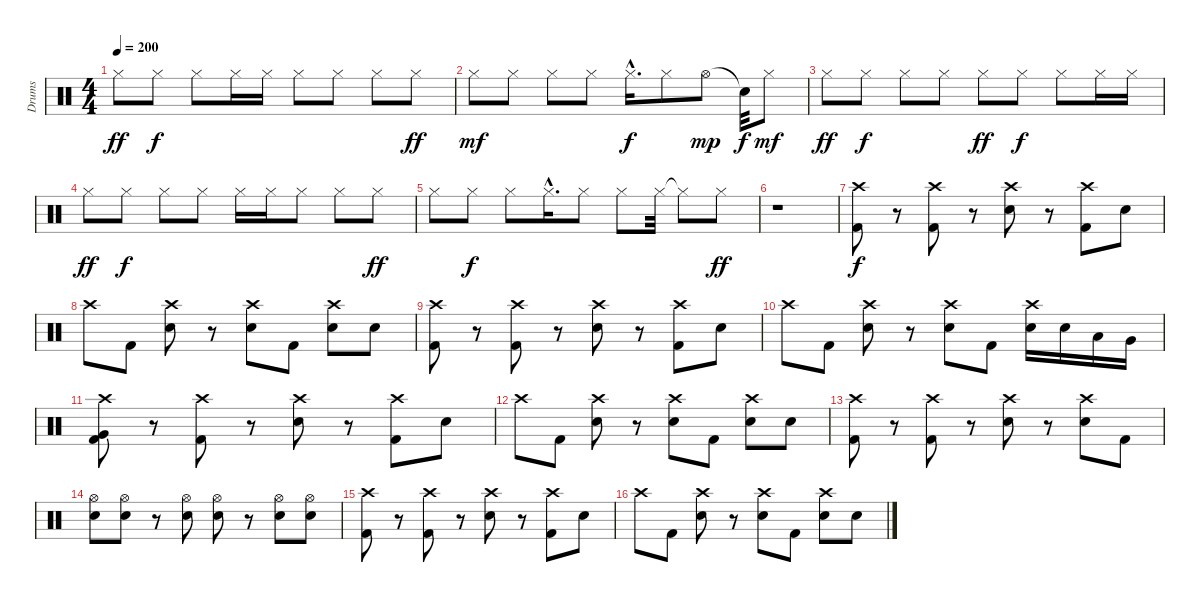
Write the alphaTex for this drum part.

\track ("Drums" "Drums") {instrument percussion}
\staff {score}
\articulation defaults
\ts (4 4)
\tempo 200
\clef neutral
\ks c "Hi-Hat (closed)".8{dy ff} "Hi-Hat (closed)".8{dy f} "Hi-Hat (closed)".8 "Hi-Hat (closed)".16 "Hi-Hat (closed)".16 "Hi-Hat (closed)".8 "Hi-Hat (closed)".8 "Hi-Hat (closed)".8 "Hi-Hat (closed)".8{dy ff}
|
"Hi-Hat (closed)".8{dy mf} "Hi-Hat (closed)".8 "Hi-Hat (closed)".8 "Hi-Hat (closed)".8 "Hi-Hat (closed)"{hac}.16{d dy f} "Hi-Hat (closed)".8 "Hi-Hat (open)".8{dy mp} "Snare (hit)"{t}.32{dy f} "Hi-Hat (closed)".8{dy mf} |
"Hi-Hat (closed)".8{dy ff} "Hi-Hat (closed)".8{dy f} "Hi-Hat (closed)".8 "Hi-Hat (closed)".8 "Hi-Hat (closed)".8{dy ff} "Hi-Hat (closed)".8{dy f} "Hi-Hat (closed)".8 "Hi-Hat (closed)".16 "Hi-Hat (closed)".16 |
"Hi-Hat (closed)".8{dy ff} "Hi-Hat (closed)".8{dy f} "Hi-Hat (closed)".8 "Hi-Hat (closed)".8 "Hi-Hat (closed)".16 "Hi-Hat (closed)".16 "Hi-Hat (closed)".8 "Hi-Hat (closed)".8 "Hi-Hat (closed)".8{dy ff} |
"Hi-Hat (closed)".8 "Hi-Hat (closed)".8{dy f} "Hi-Hat (closed)".8 "Hi-Hat (closed)"{hac}.16{d} "Hi-Hat (closed)".8 "Hi-Hat (closed)".8 "Hi-Hat (closed)".32 "Hi-Hat (closed)"{t}.8 "Hi-Hat (closed)".8{dy ff} |
r.1 |
("Crash high (hit)" "Kick (hit) 2").8{dy f} r.8 ("Crash high (hit)" "Kick (hit) 2").8 r.8 ("Crash high (hit)" "Electric Snare (hit)").8 r.8 ("Crash high (hit)" "Kick (hit) 2").8 "Electric Snare (hit)".8 |
"Crash high (hit)".8 "Kick (hit) 2".8 ("Crash high (hit)" "Electric Snare (hit)").8 r.8 ("Crash high (hit)" "Electric Snare (hit)").8 "Kick (hit) 2".8 ("Crash high (hit)" "Electric Snare (hit)").8 "Electric Snare (hit)".8 |
("Crash high (hit)" "Kick (hit) 2").8 r.8 ("Crash high (hit)" "Kick (hit) 2").8 r.8 ("Crash high (hit)" "Electric Snare (hit)").8 r.8 ("Crash high (hit)" "Kick (hit) 2").8 "Electric Snare (hit)".8 |
"Crash high (hit)".8 "Kick (hit) 2".8 ("Crash high (hit)" "Electric Snare (hit)").8 r.8 ("Crash high (hit)" "Electric Snare (hit)").8 "Kick (hit) 2".8 ("Crash high (hit)" "Electric Snare (hit)").16 "Electric Snare (hit)".16 "Low Tom (hit)".16 "Very Low Tom (hit)".16 |
("Crash high (hit)" "Very Low Tom (hit)" "Kick (hit) 2").8 r.8 ("Crash high (hit)" "Kick (hit) 2").8 r.8 ("Crash high (hit)" "Electric Snare (hit)").8 r.8 ("Crash high (hit)" "Kick (hit) 2").8 "Electric Snare (hit)".8 |
"Crash high (hit)".8 "Kick (hit) 2".8 ("Crash high (hit)" "Electric Snare (hit)").8 r.8 ("Crash high (hit)" "Electric Snare (hit)").8 "Kick (hit) 2".8 ("Crash high (hit)" "Electric Snare (hit)").8 "Electric Snare (hit)".8 |
("Crash high (hit)" "Kick (hit) 2").8 r.8 ("Crash high (hit)" "Kick (hit) 2").8 r.8 ("Crash high (hit)" "Electric Snare (hit)").8 r.8 ("Crash high (hit)" "Electric Snare (hit)").8 "Kick (hit) 2".8 |
("Hi-Hat (open)" "Electric Snare (hit)").8 ("Hi-Hat (open)" "Electric Snare (hit)").8 r.8 ("Hi-Hat (open)" "Electric Snare (hit)").8 ("Hi-Hat (open)" "Electric Snare (hit)").8 r.8 ("Hi-Hat (open)" "Electric Snare (hit)").8 ("Hi-Hat (open)" "Electric Snare (hit)").8 |
("Crash high (hit)" "Kick (hit) 2").8 r.8 ("Crash high (hit)" "Kick (hit) 2").8 r.8 ("Crash high (hit)" "Electric Snare (hit)").8 r.8 ("Crash high (hit)" "Kick (hit) 2").8 "Electric Snare (hit)".8 |
"Crash high (hit)".8 "Kick (hit) 2".8 ("Crash high (hit)" "Electric Snare (hit)").8 r.8 ("Crash high (hit)" "Electric Snare (hit)").8 "Kick (hit) 2".8 ("Crash high (hit)" "Electric Snare (hit)").8 "Electric Snare (hit)".8
